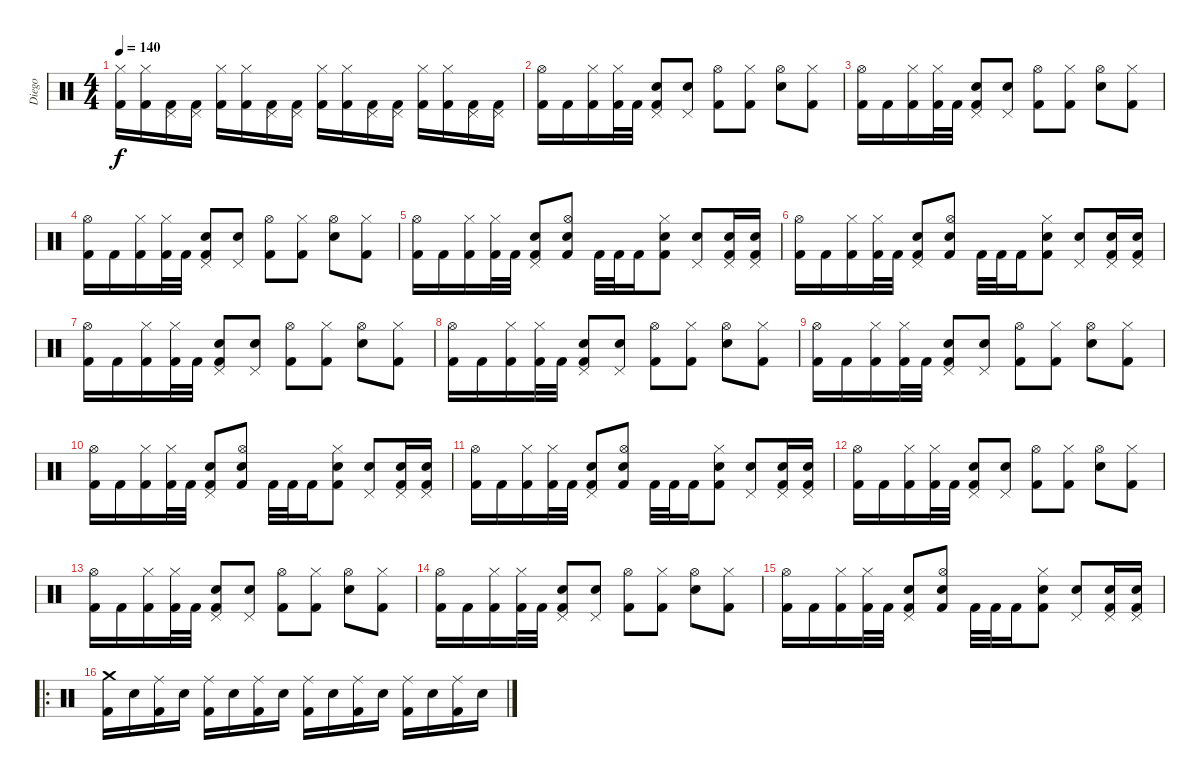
\track ("Diego" "Diego") {instrument percussion}
\staff {score}
\articulation defaults
\ts (4 4)
\tempo 140
\clef neutral
\ks c
("Hi-Hat (closed)" "Kick (hit) 2").16{dy f} ("Hi-Hat (closed)" "Kick (hit) 2").16 ("Pedal Hi-Hat (hit)" "Kick (hit) 2").16 ("Pedal Hi-Hat (hit)" "Kick (hit) 2").16 ("Hi-Hat (closed)" "Kick (hit) 2").16 ("Hi-Hat (closed)" "Kick (hit) 2").16 ("Pedal Hi-Hat (hit)" "Kick (hit) 2").16 ("Pedal Hi-Hat (hit)" "Kick (hit) 2").16 ("Hi-Hat (closed)" "Kick (hit) 2").16 ("Hi-Hat (closed)" "Kick (hit) 2").16 ("Pedal Hi-Hat (hit)" "Kick (hit) 2").16 ("Pedal Hi-Hat (hit)" "Kick (hit) 2").16 ("Hi-Hat (closed)" "Kick (hit) 2").16 ("Hi-Hat (closed)" "Kick (hit) 2").16 ("Pedal Hi-Hat (hit)" "Kick (hit) 2").16 ("Pedal Hi-Hat (hit)" "Kick (hit) 2").16 |
("Hi-Hat (open)" "Kick (hit) 2").16 "Kick (hit) 2".16 ("Hi-Hat (closed)" "Kick (hit) 2").16 ("Hi-Hat (closed)" "Kick (hit) 2").32 "Kick (hit) 2".32 ("Pedal Hi-Hat (hit)" "Snare (hit) 2" "Kick (hit) 2").8 ("Pedal Hi-Hat (hit)" "Snare (hit) 2").8 ("Hi-Hat (open)" "Kick (hit) 2").8 ("Hi-Hat (closed)" "Kick (hit) 2").8 ("Hi-Hat (open)" "Snare (hit) 2").8 ("Hi-Hat (closed)" "Kick (hit) 2").8 |
("Hi-Hat (open)" "Kick (hit) 2").16 "Kick (hit) 2".16 ("Hi-Hat (closed)" "Kick (hit) 2").16 ("Hi-Hat (closed)" "Kick (hit) 2").32 "Kick (hit) 2".32 ("Pedal Hi-Hat (hit)" "Snare (hit) 2" "Kick (hit) 2").8 ("Pedal Hi-Hat (hit)" "Snare (hit) 2").8 ("Hi-Hat (open)" "Kick (hit) 2").8 ("Hi-Hat (closed)" "Kick (hit) 2").8 ("Hi-Hat (open)" "Snare (hit) 2").8 ("Hi-Hat (closed)" "Kick (hit) 2").8 |
("Hi-Hat (open)" "Kick (hit) 2").16 "Kick (hit) 2".16 ("Hi-Hat (closed)" "Kick (hit) 2").16 ("Hi-Hat (closed)" "Kick (hit) 2").32 "Kick (hit) 2".32 ("Pedal Hi-Hat (hit)" "Snare (hit) 2" "Kick (hit) 2").8 ("Pedal Hi-Hat (hit)" "Snare (hit) 2").8 ("Hi-Hat (open)" "Kick (hit) 2").8 ("Hi-Hat (closed)" "Kick (hit) 2").8 ("Hi-Hat (open)" "Snare (hit) 2").8 ("Hi-Hat (closed)" "Kick (hit) 2").8 |
("Hi-Hat (open)" "Kick (hit) 2").16 "Kick (hit) 2".16 ("Hi-Hat (closed)" "Kick (hit) 2").16 ("Hi-Hat (closed)" "Kick (hit) 2").32 "Kick (hit) 2".32 ("Pedal Hi-Hat (hit)" "Snare (hit) 2" "Kick (hit) 2").8 ("Hi-Hat (open)" "Snare (hit) 2" "Kick (hit) 2").8 "Kick (hit) 2".32 "Kick (hit) 2".32 "Kick (hit) 2".16 ("Hi-Hat (closed)" "Snare (hit) 2" "Kick (hit) 2").8 ("Pedal Hi-Hat (hit)" "Snare (hit) 2").8 ("Pedal Hi-Hat (hit)" "Snare (hit) 2" "Kick (hit) 2").16 ("Pedal Hi-Hat (hit)" "Snare (hit) 2" "Kick (hit) 2").16 |
("Hi-Hat (open)" "Kick (hit) 2").16 "Kick (hit) 2".16 ("Hi-Hat (closed)" "Kick (hit) 2").16 ("Hi-Hat (closed)" "Kick (hit) 2").32 "Kick (hit) 2".32 ("Pedal Hi-Hat (hit)" "Snare (hit) 2" "Kick (hit) 2").8 ("Hi-Hat (open)" "Snare (hit) 2" "Kick (hit) 2").8 "Kick (hit) 2".32 "Kick (hit) 2".32 "Kick (hit) 2".16 ("Hi-Hat (closed)" "Snare (hit) 2" "Kick (hit) 2").8 ("Pedal Hi-Hat (hit)" "Snare (hit) 2").8 ("Pedal Hi-Hat (hit)" "Snare (hit) 2" "Kick (hit) 2").16 ("Pedal Hi-Hat (hit)" "Snare (hit) 2" "Kick (hit) 2").16 |
("Hi-Hat (open)" "Kick (hit) 2").16 "Kick (hit) 2".16 ("Hi-Hat (closed)" "Kick (hit) 2").16 ("Hi-Hat (closed)" "Kick (hit) 2").32 "Kick (hit) 2".32 ("Pedal Hi-Hat (hit)" "Snare (hit) 2" "Kick (hit) 2").8 ("Pedal Hi-Hat (hit)" "Snare (hit) 2").8 ("Hi-Hat (open)" "Kick (hit) 2").8 ("Hi-Hat (closed)" "Kick (hit) 2").8 ("Hi-Hat (open)" "Snare (hit) 2").8 ("Hi-Hat (closed)" "Kick (hit) 2").8 |
("Hi-Hat (open)" "Kick (hit) 2").16 "Kick (hit) 2".16 ("Hi-Hat (closed)" "Kick (hit) 2").16 ("Hi-Hat (closed)" "Kick (hit) 2").32 "Kick (hit) 2".32 ("Pedal Hi-Hat (hit)" "Snare (hit) 2" "Kick (hit) 2").8 ("Pedal Hi-Hat (hit)" "Snare (hit) 2").8 ("Hi-Hat (open)" "Kick (hit) 2").8 ("Hi-Hat (closed)" "Kick (hit) 2").8 ("Hi-Hat (open)" "Snare (hit) 2").8 ("Hi-Hat (closed)" "Kick (hit) 2").8 |
("Hi-Hat (open)" "Kick (hit) 2").16 "Kick (hit) 2".16 ("Hi-Hat (closed)" "Kick (hit) 2").16 ("Hi-Hat (closed)" "Kick (hit) 2").32 "Kick (hit) 2".32 ("Pedal Hi-Hat (hit)" "Snare (hit) 2" "Kick (hit) 2").8 ("Pedal Hi-Hat (hit)" "Snare (hit) 2").8 ("Hi-Hat (open)" "Kick (hit) 2").8 ("Hi-Hat (closed)" "Kick (hit) 2").8 ("Hi-Hat (open)" "Snare (hit) 2").8 ("Hi-Hat (closed)" "Kick (hit) 2").8 |
("Hi-Hat (open)" "Kick (hit) 2").16 "Kick (hit) 2".16 ("Hi-Hat (closed)" "Kick (hit) 2").16 ("Hi-Hat (closed)" "Kick (hit) 2").32 "Kick (hit) 2".32 ("Pedal Hi-Hat (hit)" "Snare (hit) 2" "Kick (hit) 2").8 ("Hi-Hat (open)" "Snare (hit) 2" "Kick (hit) 2").8 "Kick (hit) 2".32 "Kick (hit) 2".32 "Kick (hit) 2".16 ("Hi-Hat (closed)" "Snare (hit) 2" "Kick (hit) 2").8 ("Pedal Hi-Hat (hit)" "Snare (hit) 2").8 ("Pedal Hi-Hat (hit)" "Snare (hit) 2" "Kick (hit) 2").16 ("Pedal Hi-Hat (hit)" "Snare (hit) 2" "Kick (hit) 2").16 |
("Hi-Hat (open)" "Kick (hit) 2").16 "Kick (hit) 2".16 ("Hi-Hat (closed)" "Kick (hit) 2").16 ("Hi-Hat (closed)" "Kick (hit) 2").32 "Kick (hit) 2".32 ("Pedal Hi-Hat (hit)" "Snare (hit) 2" "Kick (hit) 2").8 ("Hi-Hat (open)" "Snare (hit) 2" "Kick (hit) 2").8 "Kick (hit) 2".32 "Kick (hit) 2".32 "Kick (hit) 2".16 ("Hi-Hat (closed)" "Snare (hit) 2" "Kick (hit) 2").8 ("Pedal Hi-Hat (hit)" "Snare (hit) 2").8 ("Pedal Hi-Hat (hit)" "Snare (hit) 2" "Kick (hit) 2").16 ("Pedal Hi-Hat (hit)" "Snare (hit) 2" "Kick (hit) 2").16 |
("Hi-Hat (open)" "Kick (hit) 2").16 "Kick (hit) 2".16 ("Hi-Hat (closed)" "Kick (hit) 2").16 ("Hi-Hat (closed)" "Kick (hit) 2").32 "Kick (hit) 2".32 ("Pedal Hi-Hat (hit)" "Snare (hit) 2" "Kick (hit) 2").8 ("Pedal Hi-Hat (hit)" "Snare (hit) 2").8 ("Hi-Hat (open)" "Kick (hit) 2").8 ("Hi-Hat (closed)" "Kick (hit) 2").8 ("Hi-Hat (open)" "Snare (hit) 2").8 ("Hi-Hat (closed)" "Kick (hit) 2").8 |
("Hi-Hat (open)" "Kick (hit) 2").16 "Kick (hit) 2".16 ("Hi-Hat (closed)" "Kick (hit) 2").16 ("Hi-Hat (closed)" "Kick (hit) 2").32 "Kick (hit) 2".32 ("Pedal Hi-Hat (hit)" "Snare (hit) 2" "Kick (hit) 2").8 ("Pedal Hi-Hat (hit)" "Snare (hit) 2").8 ("Hi-Hat (open)" "Kick (hit) 2").8 ("Hi-Hat (closed)" "Kick (hit) 2").8 ("Hi-Hat (open)" "Snare (hit) 2").8 ("Hi-Hat (closed)" "Kick (hit) 2").8 |
("Hi-Hat (open)" "Kick (hit) 2").16 "Kick (hit) 2".16 ("Hi-Hat (closed)" "Kick (hit) 2").16 ("Hi-Hat (closed)" "Kick (hit) 2").32 "Kick (hit) 2".32 ("Pedal Hi-Hat (hit)" "Snare (hit) 2" "Kick (hit) 2").8 ("Pedal Hi-Hat (hit)" "Snare (hit) 2").8 ("Hi-Hat (open)" "Kick (hit) 2").8 ("Hi-Hat (closed)" "Kick (hit) 2").8 ("Hi-Hat (open)" "Snare (hit) 2").8 ("Hi-Hat (closed)" "Kick (hit) 2").8 |
("Hi-Hat (open)" "Kick (hit) 2").16 "Kick (hit) 2".16 ("Hi-Hat (closed)" "Kick (hit) 2").16 ("Hi-Hat (closed)" "Kick (hit) 2").32 "Kick (hit) 2".32 ("Pedal Hi-Hat (hit)" "Snare (hit) 2" "Kick (hit) 2").8 ("Hi-Hat (open)" "Snare (hit) 2" "Kick (hit) 2").8 "Kick (hit) 2".32 "Kick (hit) 2".32 "Kick (hit) 2".16 ("Hi-Hat (closed)" "Snare (hit) 2" "Kick (hit) 2").8 ("Pedal Hi-Hat (hit)" "Snare (hit) 2").8 ("Pedal Hi-Hat (hit)" "Snare (hit) 2" "Kick (hit) 2").16 ("Pedal Hi-Hat (hit)" "Snare (hit) 2" "Kick (hit) 2").16 |
\ro
("Kick (hit) 2" "Crash medium (hit)").16 "Electric Snare (hit)".16 ("Kick (hit) 2" "Ride (middle)").16 "Electric Snare (hit)".16 ("Kick (hit) 2" "Ride (middle)").16 "Electric Snare (hit)".16 ("Kick (hit) 2" "Ride (middle)").16 "Electric Snare (hit)".16 ("Kick (hit) 2" "Ride (middle)").16 "Electric Snare (hit)".16 ("Kick (hit) 2" "Ride (middle)").16 "Electric Snare (hit)".16 ("Kick (hit) 2" "Ride (middle)").16 "Electric Snare (hit)".16 ("Kick (hit) 2" "Ride (middle)").16 "Electric Snare (hit)".16
